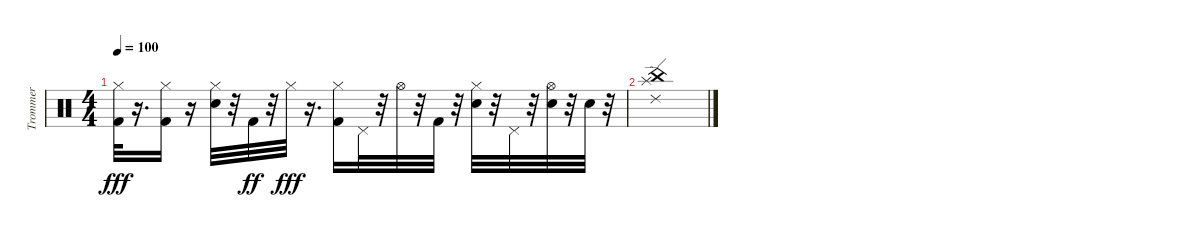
\track ("Trommer" "Trommer") {instrument percussion}
\staff {score}
\articulation defaults
\ts (4 4)
\tempo 100
\clef neutral
\ks c
("Kick (hit) 2" "Hi-Hat (closed)").32{dy fff} r.16{d} ("Kick (hit) 2" "Hi-Hat (closed)").16 r.16 ("Snare (hit) 2" "Hi-Hat (closed)").32 r.32 "Kick (hit) 2".32{dy ff} r.32 "Hi-Hat (closed)".32{dy fff} r.16{d} ("Kick (hit) 2" "Hi-Hat (closed)").16 "Pedal Hi-Hat (hit)".32 r.32 "Hi-Hat (open)".32 r.32 "Kick (hit) 2".32 r.32 ("Snare (hit) 2" "Hi-Hat (closed)").32 r.32 "Pedal Hi-Hat (hit)".32 r.32 ("Snare (hit) 2" "Hi-Hat (open)").32 r.32 "Snare (hit) 2".32 r.32 |
("China (hit)" "Splash (hit)" "Ride (edge) 2").1
